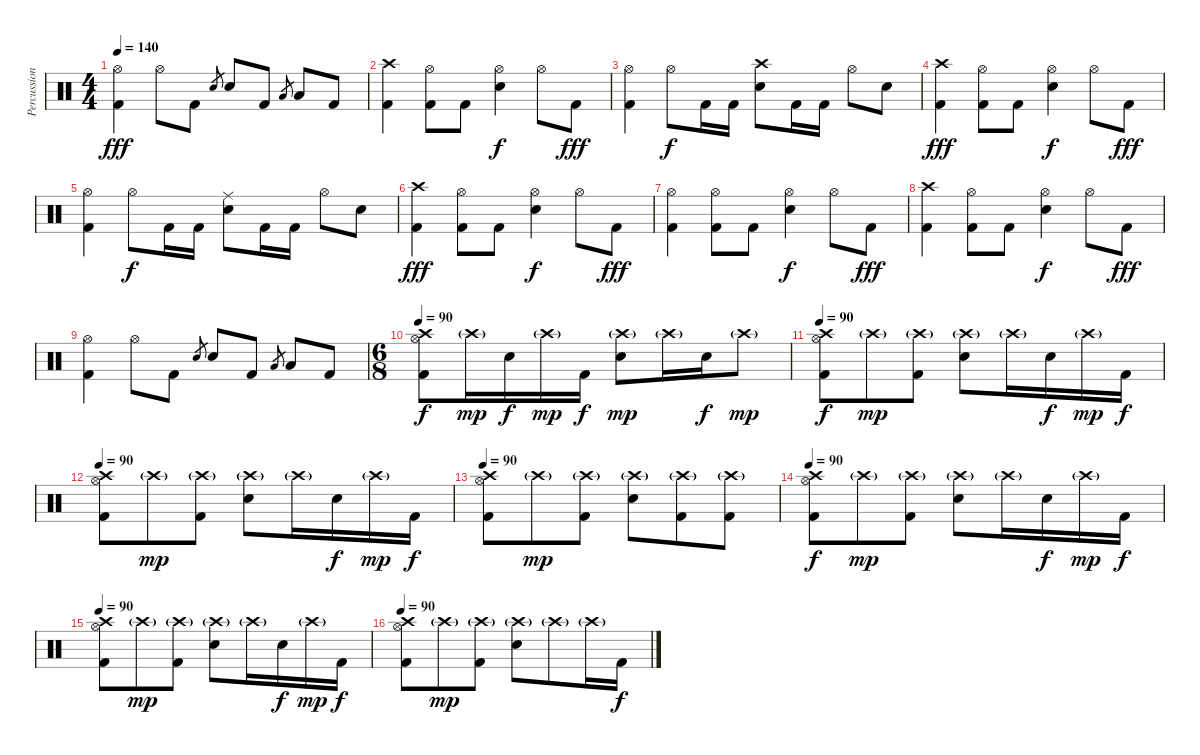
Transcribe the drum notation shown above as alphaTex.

\track ("Percussion" "Percussion") {instrument percussion}
\staff {score}
\articulation defaults
\ts (4 4)
\tempo 140
\clef neutral
\ks c
("Hi-Hat (open)" "Kick (hit) 2").4{dy fff} "Hi-Hat (open)".8 "Kick (hit) 2".8 "Electric Snare (hit)".8{gr} "Electric Snare (hit)".8 "Kick (hit) 2".8 "Low Tom (hit)".8{gr} "Low Tom (hit)".8 "Kick (hit) 2".8 |
("Crash high (hit)" "Kick (hit) 2").4 ("Hi-Hat (open)" "Kick (hit) 2").8 "Kick (hit) 2".8 ("Hi-Hat (open)" "Electric Snare (hit)").4{dy f} "Hi-Hat (open)".8 "Kick (hit) 2".8{dy fff} |
("Hi-Hat (open)" "Kick (hit) 2").4 "Hi-Hat (open)".8{dy f} "Kick (hit) 2".16 "Kick (hit) 2".16 ("Crash high (hit)" "Electric Snare (hit)").8 "Kick (hit) 2".16 "Kick (hit) 2".16 "Hi-Hat (open)".8 "Electric Snare (hit)".8 |
("Crash high (hit)" "Kick (hit) 2").4{dy fff} ("Hi-Hat (open)" "Kick (hit) 2").8 "Kick (hit) 2".8 ("Hi-Hat (open)" "Electric Snare (hit)").4{dy f} "Hi-Hat (open)".8 "Kick (hit) 2".8{dy fff} |
("Hi-Hat (open)" "Kick (hit) 2").4 "Hi-Hat (open)".8{dy f} "Kick (hit) 2".16 "Kick (hit) 2".16 ("Ride (middle)" "Electric Snare (hit)").8 "Kick (hit) 2".16 "Kick (hit) 2".16 "Hi-Hat (open)".8 "Electric Snare (hit)".8 |
("Crash high (hit)" "Kick (hit) 2").4{dy fff} ("Hi-Hat (open)" "Kick (hit) 2").8 "Kick (hit) 2".8 ("Hi-Hat (open)" "Electric Snare (hit)").4{dy f} "Hi-Hat (open)".8 "Kick (hit) 2".8{dy fff} |
("Hi-Hat (open)" "Kick (hit) 2").4 ("Hi-Hat (open)" "Kick (hit) 2").8 "Kick (hit) 2".8 ("Hi-Hat (open)" "Electric Snare (hit)").4{dy f} "Hi-Hat (open)".8 "Kick (hit) 2".8{dy fff} |
("Crash high (hit)" "Kick (hit) 2").4 ("Hi-Hat (open)" "Kick (hit) 2").8 "Kick (hit) 2".8 ("Hi-Hat (open)" "Electric Snare (hit)").4{dy f} "Hi-Hat (open)".8 "Kick (hit) 2".8{dy fff} |
("Hi-Hat (open)" "Kick (hit) 2").4 "Hi-Hat (open)".8 "Kick (hit) 2".8 "Electric Snare (hit)".8{gr} "Electric Snare (hit)".8 "Kick (hit) 2".8 "Low Tom (hit)".8{gr} "Low Tom (hit)".8 "Kick (hit) 2".8 |
\ts (6 8)
\tempo 90
("Crash high (hit)" "Hi-Hat (open)" "Kick (hit) 2").8{dy f} "Crash high (hit)"{g}.16{dy mp} "Electric Snare (hit)".16{dy f} "Crash high (hit)"{g}.16{dy mp} "Kick (hit) 2".16{dy f} ("Crash high (hit)"{g} "Electric Snare (hit)").8{dy mp} "Crash high (hit)"{g}.16 "Electric Snare (hit)".16{dy f} "Crash high (hit)"{g}.8{dy mp} |
\tempo 90
("Crash high (hit)" "Hi-Hat (open)" "Kick (hit) 2").8{dy f} "Crash high (hit)"{g}.8{dy mp} ("Crash high (hit)"{g} "Kick (hit) 2").8 ("Crash high (hit)"{g} "Electric Snare (hit)").8 "Crash high (hit)"{g}.16 "Electric Snare (hit)".16{dy f} "Crash high (hit)"{g}.16{dy mp} "Kick (hit) 2".16{dy f} |
\tempo 90
("Crash high (hit)" "Hi-Hat (open)" "Kick (hit) 2").8 "Crash high (hit)"{g}.8{dy mp} ("Crash high (hit)"{g} "Kick (hit) 2").8 ("Crash high (hit)"{g} "Electric Snare (hit)").8 "Crash high (hit)"{g}.16 "Electric Snare (hit)".16{dy f} "Crash high (hit)"{g}.16{dy mp} "Kick (hit) 2".16{dy f} |
\tempo 90
("Crash high (hit)" "Hi-Hat (open)" "Kick (hit) 2").8 "Crash high (hit)"{g}.8{dy mp} ("Crash high (hit)"{g} "Kick (hit) 2").8 ("Crash high (hit)"{g} "Electric Snare (hit)").8 ("Crash high (hit)"{g} "Kick (hit) 2").8 ("Crash high (hit)"{g} "Kick (hit) 2").8 |
\tempo 90
("Crash high (hit)" "Hi-Hat (open)" "Kick (hit) 2").8{dy f} "Crash high (hit)"{g}.8{dy mp} ("Crash high (hit)"{g} "Kick (hit) 2").8 ("Crash high (hit)"{g} "Electric Snare (hit)").8 "Crash high (hit)"{g}.16 "Electric Snare (hit)".16{dy f} "Crash high (hit)"{g}.16{dy mp} "Kick (hit) 2".16{dy f} |
\tempo 90
("Crash high (hit)" "Hi-Hat (open)" "Kick (hit) 2").8 "Crash high (hit)"{g}.8{dy mp} ("Crash high (hit)"{g} "Kick (hit) 2").8 ("Crash high (hit)"{g} "Electric Snare (hit)").8 "Crash high (hit)"{g}.16 "Electric Snare (hit)".16{dy f} "Crash high (hit)"{g}.16{dy mp} "Kick (hit) 2".16{dy f} |
\tempo 90
("Crash high (hit)" "Hi-Hat (open)" "Kick (hit) 2").8 "Crash high (hit)"{g}.8{dy mp} ("Crash high (hit)"{g} "Kick (hit) 2").8 ("Crash high (hit)"{g} "Electric Snare (hit)").8 "Crash high (hit)"{g}.8 "Crash high (hit)"{g}.16 "Kick (hit) 2".16{dy f}
